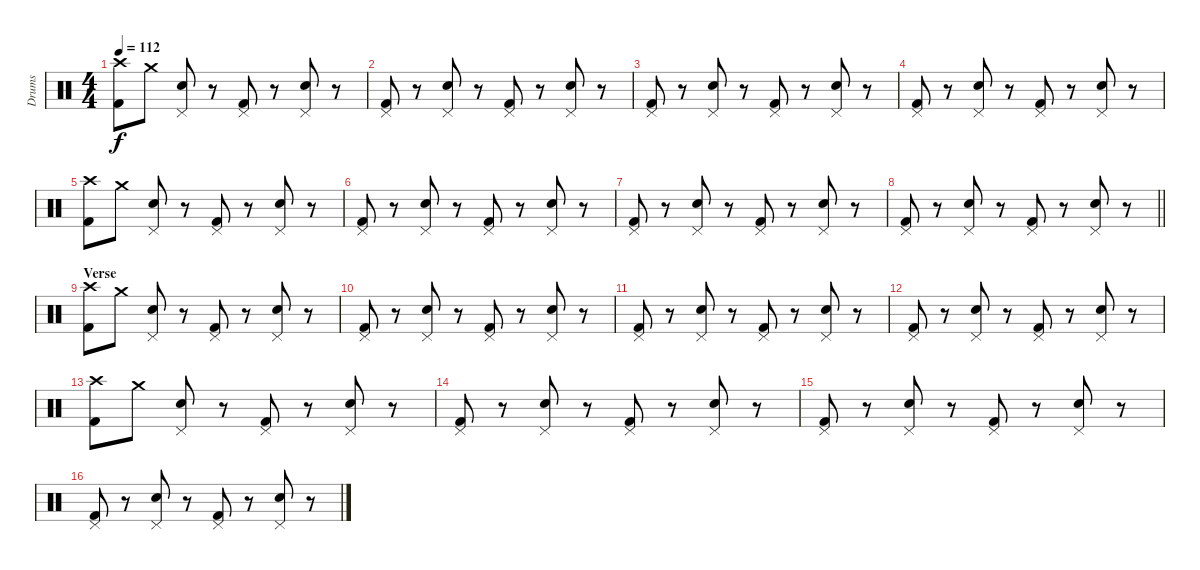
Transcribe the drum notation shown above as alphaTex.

\track ("Drums" "Drums") {instrument percussion}
\staff {score}
\articulation defaults
\ts (4 4)
\tempo 112
\clef neutral
\ks c
("Crash high (hit)" "Kick (hit) 2").8{dy f} "Crash medium (hit)".8 ("Pedal Hi-Hat (hit)" "Snare (hit) 2").8 r.8 ("Pedal Hi-Hat (hit)" "Kick (hit) 2").8 r.8 ("Pedal Hi-Hat (hit)" "Snare (hit) 2").8 r.8 |
("Pedal Hi-Hat (hit)" "Kick (hit) 2").8 r.8 ("Pedal Hi-Hat (hit)" "Snare (hit) 2").8 r.8 ("Pedal Hi-Hat (hit)" "Kick (hit) 2").8 r.8 ("Pedal Hi-Hat (hit)" "Snare (hit) 2").8 r.8 |
("Pedal Hi-Hat (hit)" "Kick (hit) 2").8 r.8 ("Pedal Hi-Hat (hit)" "Snare (hit) 2").8 r.8 ("Pedal Hi-Hat (hit)" "Kick (hit) 2").8 r.8 ("Pedal Hi-Hat (hit)" "Snare (hit) 2").8 r.8 |
("Pedal Hi-Hat (hit)" "Kick (hit) 2").8 r.8 ("Pedal Hi-Hat (hit)" "Snare (hit) 2").8 r.8 ("Pedal Hi-Hat (hit)" "Kick (hit) 2").8 r.8 ("Pedal Hi-Hat (hit)" "Snare (hit) 2").8 r.8 |
("Crash high (hit)" "Kick (hit) 2").8 "Crash medium (hit)".8 ("Pedal Hi-Hat (hit)" "Snare (hit) 2").8 r.8 ("Pedal Hi-Hat (hit)" "Kick (hit) 2").8 r.8 ("Pedal Hi-Hat (hit)" "Snare (hit) 2").8 r.8 |
("Pedal Hi-Hat (hit)" "Kick (hit) 2").8 r.8 ("Pedal Hi-Hat (hit)" "Snare (hit) 2").8 r.8 ("Pedal Hi-Hat (hit)" "Kick (hit) 2").8 r.8 ("Pedal Hi-Hat (hit)" "Snare (hit) 2").8 r.8 |
("Pedal Hi-Hat (hit)" "Kick (hit) 2").8 r.8 ("Pedal Hi-Hat (hit)" "Snare (hit) 2").8 r.8 ("Pedal Hi-Hat (hit)" "Kick (hit) 2").8 r.8 ("Pedal Hi-Hat (hit)" "Snare (hit) 2").8 r.8 |
\barLineRight lightlight
("Pedal Hi-Hat (hit)" "Kick (hit) 2").8 r.8 ("Pedal Hi-Hat (hit)" "Snare (hit) 2").8 r.8 ("Pedal Hi-Hat (hit)" "Kick (hit) 2").8 r.8 ("Pedal Hi-Hat (hit)" "Snare (hit) 2").8 r.8 |
\section ("" "Verse")
("Crash high (hit)" "Kick (hit) 2").8 "Crash medium (hit)".8 ("Pedal Hi-Hat (hit)" "Snare (hit) 2").8 r.8 ("Pedal Hi-Hat (hit)" "Kick (hit) 2").8 r.8 ("Pedal Hi-Hat (hit)" "Snare (hit) 2").8 r.8 |
("Pedal Hi-Hat (hit)" "Kick (hit) 2").8 r.8 ("Pedal Hi-Hat (hit)" "Snare (hit) 2").8 r.8 ("Pedal Hi-Hat (hit)" "Kick (hit) 2").8 r.8 ("Pedal Hi-Hat (hit)" "Snare (hit) 2").8 r.8 |
("Pedal Hi-Hat (hit)" "Kick (hit) 2").8 r.8 ("Pedal Hi-Hat (hit)" "Snare (hit) 2").8 r.8 ("Pedal Hi-Hat (hit)" "Kick (hit) 2").8 r.8 ("Pedal Hi-Hat (hit)" "Snare (hit) 2").8 r.8 |
("Pedal Hi-Hat (hit)" "Kick (hit) 2").8 r.8 ("Pedal Hi-Hat (hit)" "Snare (hit) 2").8 r.8 ("Pedal Hi-Hat (hit)" "Kick (hit) 2").8 r.8 ("Pedal Hi-Hat (hit)" "Snare (hit) 2").8 r.8 |
("Crash high (hit)" "Kick (hit) 2").8 "Crash medium (hit)".8 ("Pedal Hi-Hat (hit)" "Snare (hit) 2").8 r.8 ("Pedal Hi-Hat (hit)" "Kick (hit) 2").8 r.8 ("Pedal Hi-Hat (hit)" "Snare (hit) 2").8 r.8 |
("Pedal Hi-Hat (hit)" "Kick (hit) 2").8 r.8 ("Pedal Hi-Hat (hit)" "Snare (hit) 2").8 r.8 ("Pedal Hi-Hat (hit)" "Kick (hit) 2").8 r.8 ("Pedal Hi-Hat (hit)" "Snare (hit) 2").8 r.8 |
("Pedal Hi-Hat (hit)" "Kick (hit) 2").8 r.8 ("Pedal Hi-Hat (hit)" "Snare (hit) 2").8 r.8 ("Pedal Hi-Hat (hit)" "Kick (hit) 2").8 r.8 ("Pedal Hi-Hat (hit)" "Snare (hit) 2").8 r.8 |
("Pedal Hi-Hat (hit)" "Kick (hit) 2").8 r.8 ("Pedal Hi-Hat (hit)" "Snare (hit) 2").8 r.8 ("Pedal Hi-Hat (hit)" "Kick (hit) 2").8 r.8 ("Pedal Hi-Hat (hit)" "Snare (hit) 2").8 r.8
